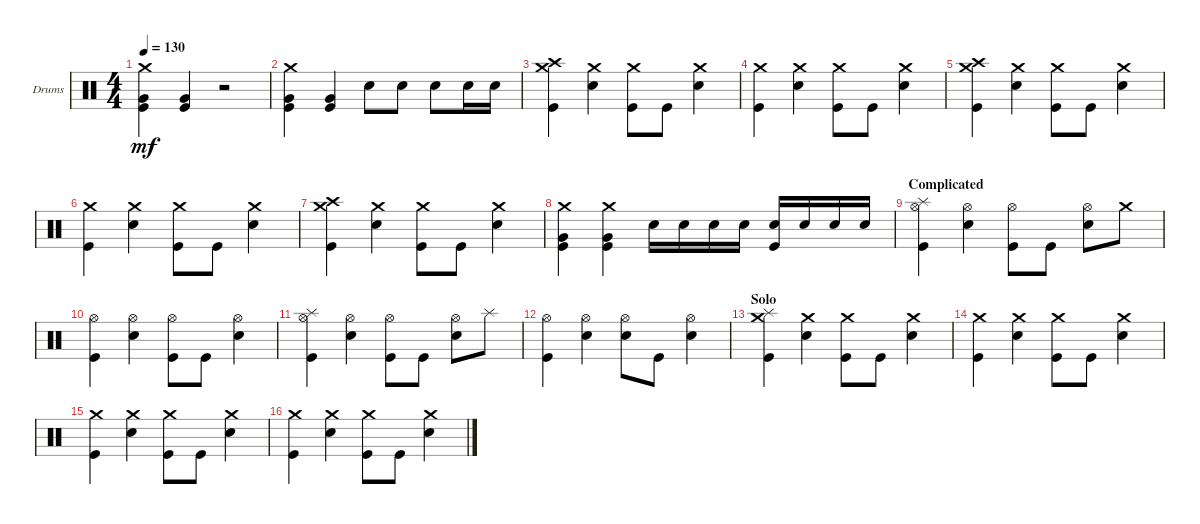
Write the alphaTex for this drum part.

\defaultSystemsLayout 4
\bracketExtendMode groupsimilarinstruments
\firstSystemTrackNameOrientation horizontal
\otherSystemsTrackNameOrientation horizontal
\track ("Drums" "Drums") {instrument percussion}
\staff {score}
\articulation defaults
\ts (4 4)
\tempo 130
\clef neutral
\ks c
("Kick (hit)" "Very Low Tom (hit)" "Crash medium (hit)").4{dy mf} ("Kick (hit)" "Very Low Tom (hit)").4 r.2 |
("Kick (hit)" "Very Low Tom (hit)" "Crash medium (hit)").4 ("Kick (hit)" "Very Low Tom (hit)").4 "Snare (hit) 2".8 "Snare (hit) 2".8 "Snare (hit) 2".8 "Snare (hit) 2".16 "Snare (hit) 2".16 |
("Kick (hit)" "Crash medium (hit)" "Crash high (hit)").4 ("Snare (hit) 2" "Crash medium (hit)").4 ("Kick (hit)" "Crash medium (hit)").8 "Kick (hit)".8 ("Snare (hit) 2" "Crash medium (hit)").4 |
("Kick (hit)" "Crash medium (hit)").4 ("Snare (hit) 2" "Crash medium (hit)").4 ("Kick (hit)" "Crash medium (hit)").8 "Kick (hit)".8 ("Snare (hit) 2" "Crash medium (hit)").4 |
("Kick (hit)" "Crash medium (hit)" "Crash high (hit)").4 ("Snare (hit) 2" "Crash medium (hit)").4 ("Kick (hit)" "Crash medium (hit)").8 "Kick (hit)".8 ("Snare (hit) 2" "Crash medium (hit)").4 |
("Kick (hit)" "Crash medium (hit)").4 ("Snare (hit) 2" "Crash medium (hit)").4 ("Kick (hit)" "Crash medium (hit)").8 "Kick (hit)".8 ("Snare (hit) 2" "Crash medium (hit)").4 |
("Kick (hit)" "Crash medium (hit)" "Crash high (hit)").4 ("Snare (hit) 2" "Crash medium (hit)").4 ("Kick (hit)" "Crash medium (hit)").8 "Kick (hit)".8 ("Snare (hit) 2" "Crash medium (hit)").4 |
("Kick (hit)" "Very Low Tom (hit)" "Crash medium (hit)").4 ("Kick (hit)" "Very Low Tom (hit)" "Crash medium (hit)").4 "Snare (hit) 2".16 "Snare (hit) 2".16 "Snare (hit) 2".16 "Snare (hit) 2".16 ("Snare (hit) 2" "Kick (hit)").16 "Snare (hit) 2".16 "Snare (hit) 2".16 "Snare (hit) 2".16 |
\section ("" "Complicated")
("Kick (hit)" "Splash (hit)" "Hi-Hat (open)").4 ("Snare (hit) 2" "Hi-Hat (open)").4 ("Kick (hit)" "Hi-Hat (open)").8 "Kick (hit)".8 ("Snare (hit) 2" "Hi-Hat (open)").8 "Crash medium (hit)".8 |
("Kick (hit)" "Hi-Hat (open)").4 ("Snare (hit) 2" "Hi-Hat (open)").4 ("Kick (hit)" "Hi-Hat (open)").8 "Kick (hit)".8 ("Snare (hit) 2" "Hi-Hat (open)").4 |
("Kick (hit)" "Splash (hit)" "Hi-Hat (open)").4 ("Snare (hit) 2" "Hi-Hat (open)").4 ("Kick (hit)" "Hi-Hat (open)").8 "Kick (hit)".8 ("Snare (hit) 2" "Hi-Hat (open)").8 "Splash (hit)".8 |
("Kick (hit)" "Hi-Hat (open)").4 ("Snare (hit) 2" "Hi-Hat (open)").4 ("Hi-Hat (open)" "Snare (hit) 2").8 "Kick (hit)".8 ("Snare (hit) 2" "Hi-Hat (open)").4 |
\section ("" "Solo")
("Kick (hit)" "Splash (hit)" "Crash medium (hit)").4 ("Snare (hit) 2" "Crash medium (hit)").4 ("Kick (hit)" "Crash medium (hit)").8 "Kick (hit)".8 ("Snare (hit) 2" "Crash medium (hit)").4 |
("Kick (hit)" "Crash medium (hit)").4 ("Snare (hit) 2" "Crash medium (hit)").4 ("Kick (hit)" "Crash medium (hit)").8 "Kick (hit)".8 ("Snare (hit) 2" "Crash medium (hit)").4 |
("Kick (hit)" "Crash medium (hit)").4 ("Snare (hit) 2" "Crash medium (hit)").4 ("Kick (hit)" "Crash medium (hit)").8 "Kick (hit)".8 ("Snare (hit) 2" "Crash medium (hit)").4 |
("Kick (hit)" "Crash medium (hit)").4 ("Snare (hit) 2" "Crash medium (hit)").4 ("Kick (hit)" "Crash medium (hit)").8 "Kick (hit)".8 ("Snare (hit) 2" "Crash medium (hit)").4
